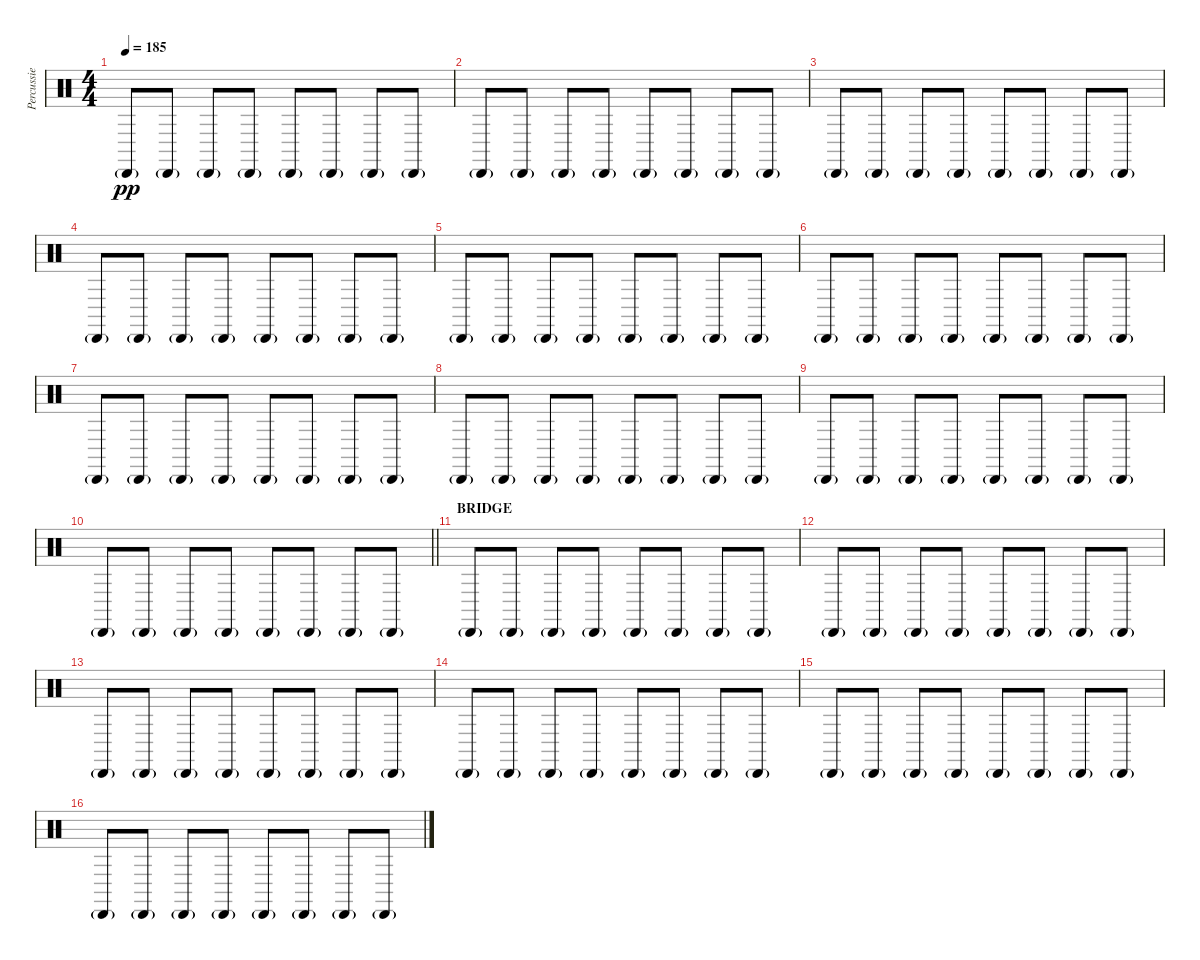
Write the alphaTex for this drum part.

\track ("Percussie" "Percussie") {instrument percussion}
\staff {score}
\articulation defaults
\ts (4 4)
\tempo 185
\clef neutral
\ks c "Cabasa (hit)"{g}.8{dy pp} "Cabasa (hit)"{g}.8 "Cabasa (hit)"{g}.8 "Cabasa (hit)"{g}.8 "Cabasa (hit)"{g}.8 "Cabasa (hit)"{g}.8 "Cabasa (hit)"{g}.8 "Cabasa (hit)"{g}.8
|
"Cabasa (hit)"{g}.8 "Cabasa (hit)"{g}.8 "Cabasa (hit)"{g}.8 "Cabasa (hit)"{g}.8 "Cabasa (hit)"{g}.8 "Cabasa (hit)"{g}.8 "Cabasa (hit)"{g}.8 "Cabasa (hit)"{g}.8 |
"Cabasa (hit)"{g}.8 "Cabasa (hit)"{g}.8 "Cabasa (hit)"{g}.8 "Cabasa (hit)"{g}.8 "Cabasa (hit)"{g}.8 "Cabasa (hit)"{g}.8 "Cabasa (hit)"{g}.8 "Cabasa (hit)"{g}.8 |
"Cabasa (hit)"{g}.8 "Cabasa (hit)"{g}.8 "Cabasa (hit)"{g}.8 "Cabasa (hit)"{g}.8 "Cabasa (hit)"{g}.8 "Cabasa (hit)"{g}.8 "Cabasa (hit)"{g}.8 "Cabasa (hit)"{g}.8 |
"Cabasa (hit)"{g}.8 "Cabasa (hit)"{g}.8 "Cabasa (hit)"{g}.8 "Cabasa (hit)"{g}.8 "Cabasa (hit)"{g}.8 "Cabasa (hit)"{g}.8 "Cabasa (hit)"{g}.8 "Cabasa (hit)"{g}.8 |
"Cabasa (hit)"{g}.8 "Cabasa (hit)"{g}.8 "Cabasa (hit)"{g}.8 "Cabasa (hit)"{g}.8 "Cabasa (hit)"{g}.8 "Cabasa (hit)"{g}.8 "Cabasa (hit)"{g}.8 "Cabasa (hit)"{g}.8 |
"Cabasa (hit)"{g}.8 "Cabasa (hit)"{g}.8 "Cabasa (hit)"{g}.8 "Cabasa (hit)"{g}.8 "Cabasa (hit)"{g}.8 "Cabasa (hit)"{g}.8 "Cabasa (hit)"{g}.8 "Cabasa (hit)"{g}.8 |
"Cabasa (hit)"{g}.8 "Cabasa (hit)"{g}.8 "Cabasa (hit)"{g}.8 "Cabasa (hit)"{g}.8 "Cabasa (hit)"{g}.8 "Cabasa (hit)"{g}.8 "Cabasa (hit)"{g}.8 "Cabasa (hit)"{g}.8 |
"Cabasa (hit)"{g}.8 "Cabasa (hit)"{g}.8 "Cabasa (hit)"{g}.8 "Cabasa (hit)"{g}.8 "Cabasa (hit)"{g}.8 "Cabasa (hit)"{g}.8 "Cabasa (hit)"{g}.8 "Cabasa (hit)"{g}.8 |
\barLineRight lightlight "Cabasa (hit)"{g}.8 "Cabasa (hit)"{g}.8 "Cabasa (hit)"{g}.8 "Cabasa (hit)"{g}.8 "Cabasa (hit)"{g}.8 "Cabasa (hit)"{g}.8 "Cabasa (hit)"{g}.8 "Cabasa (hit)"{g}.8
|
\section ("" "BRIDGE")
"Cabasa (hit)"{g}.8 "Cabasa (hit)"{g}.8 "Cabasa (hit)"{g}.8 "Cabasa (hit)"{g}.8 "Cabasa (hit)"{g}.8 "Cabasa (hit)"{g}.8 "Cabasa (hit)"{g}.8 "Cabasa (hit)"{g}.8 |
"Cabasa (hit)"{g}.8 "Cabasa (hit)"{g}.8 "Cabasa (hit)"{g}.8 "Cabasa (hit)"{g}.8 "Cabasa (hit)"{g}.8 "Cabasa (hit)"{g}.8 "Cabasa (hit)"{g}.8 "Cabasa (hit)"{g}.8 |
"Cabasa (hit)"{g}.8 "Cabasa (hit)"{g}.8 "Cabasa (hit)"{g}.8 "Cabasa (hit)"{g}.8 "Cabasa (hit)"{g}.8 "Cabasa (hit)"{g}.8 "Cabasa (hit)"{g}.8 "Cabasa (hit)"{g}.8 |
"Cabasa (hit)"{g}.8 "Cabasa (hit)"{g}.8 "Cabasa (hit)"{g}.8 "Cabasa (hit)"{g}.8 "Cabasa (hit)"{g}.8 "Cabasa (hit)"{g}.8 "Cabasa (hit)"{g}.8 "Cabasa (hit)"{g}.8 |
"Cabasa (hit)"{g}.8 "Cabasa (hit)"{g}.8 "Cabasa (hit)"{g}.8 "Cabasa (hit)"{g}.8 "Cabasa (hit)"{g}.8 "Cabasa (hit)"{g}.8 "Cabasa (hit)"{g}.8 "Cabasa (hit)"{g}.8 |
"Cabasa (hit)"{g}.8 "Cabasa (hit)"{g}.8 "Cabasa (hit)"{g}.8 "Cabasa (hit)"{g}.8 "Cabasa (hit)"{g}.8 "Cabasa (hit)"{g}.8 "Cabasa (hit)"{g}.8 "Cabasa (hit)"{g}.8
